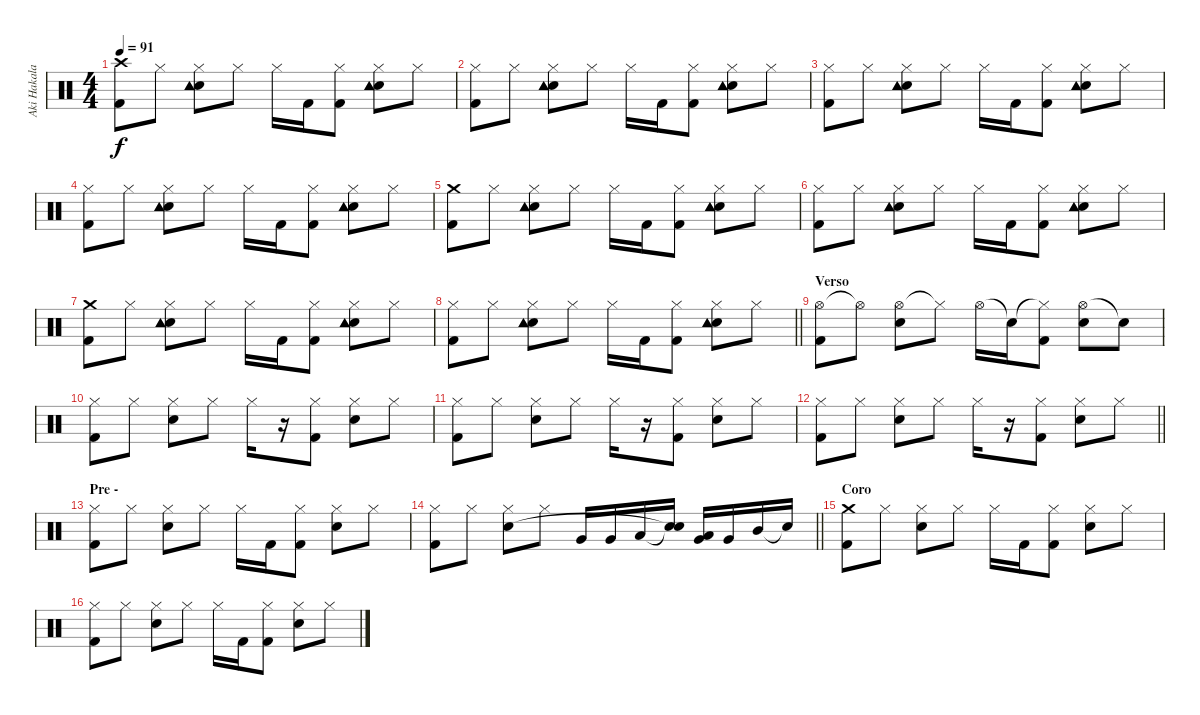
\track ("Aki Hakala" "Aki Hakala") {instrument percussion}
\staff {score}
\articulation defaults
\ts (4 4)
\tempo 91
\clef neutral
\ks c
("Crash high (hit)" "Kick (hit) 2").8{dy f} "Hi-Hat (closed)".8 ("Hi-Hat (closed)" "Electric Snare (hit)" "Tambourine (hit)" "Tambourine (hit)").8 "Hi-Hat (closed)".8 "Hi-Hat (closed)".16 "Kick (hit) 2".16 ("Hi-Hat (closed)" "Kick (hit) 2").8 ("Hi-Hat (closed)" "Electric Snare (hit)" "Tambourine (hit)" "Tambourine (hit)").8 "Hi-Hat (closed)".8 |
("Hi-Hat (closed)" "Kick (hit) 2").8 "Hi-Hat (closed)".8 ("Hi-Hat (closed)" "Electric Snare (hit)" "Tambourine (hit)" "Tambourine (hit)").8 "Hi-Hat (closed)".8 "Hi-Hat (closed)".16 "Kick (hit) 2".16 ("Hi-Hat (closed)" "Kick (hit) 2").8 ("Hi-Hat (closed)" "Electric Snare (hit)" "Tambourine (hit)" "Tambourine (hit)").8 "Hi-Hat (closed)".8 |
("Hi-Hat (closed)" "Kick (hit) 2").8 "Hi-Hat (closed)".8 ("Hi-Hat (closed)" "Electric Snare (hit)" "Tambourine (hit)" "Tambourine (hit)").8 "Hi-Hat (closed)".8 "Hi-Hat (closed)".16 "Kick (hit) 2".16 ("Hi-Hat (closed)" "Kick (hit) 2").8 ("Hi-Hat (closed)" "Electric Snare (hit)" "Tambourine (hit)" "Tambourine (hit)").8 "Hi-Hat (closed)".8 |
("Hi-Hat (closed)" "Kick (hit) 2").8 "Hi-Hat (closed)".8 ("Hi-Hat (closed)" "Electric Snare (hit)" "Tambourine (hit)" "Tambourine (hit)").8 "Hi-Hat (closed)".8 "Hi-Hat (closed)".16 "Kick (hit) 2".16 ("Hi-Hat (closed)" "Kick (hit) 2").8 ("Hi-Hat (closed)" "Electric Snare (hit)" "Tambourine (hit)" "Tambourine (hit)").8 "Hi-Hat (closed)".8 |
("Crash medium (hit)" "Kick (hit) 2").8 "Hi-Hat (closed)".8 ("Hi-Hat (closed)" "Electric Snare (hit)" "Tambourine (hit)" "Tambourine (hit)").8 "Hi-Hat (closed)".8 "Hi-Hat (closed)".16 "Kick (hit) 2".16 ("Hi-Hat (closed)" "Kick (hit) 2").8 ("Hi-Hat (closed)" "Electric Snare (hit)" "Tambourine (hit)" "Tambourine (hit)").8 "Hi-Hat (closed)".8 |
("Hi-Hat (closed)" "Kick (hit) 2").8 "Hi-Hat (closed)".8 ("Hi-Hat (closed)" "Electric Snare (hit)" "Tambourine (hit)" "Tambourine (hit)").8 "Hi-Hat (closed)".8 "Hi-Hat (closed)".16 "Kick (hit) 2".16 ("Hi-Hat (closed)" "Kick (hit) 2").8 ("Hi-Hat (closed)" "Electric Snare (hit)" "Tambourine (hit)" "Tambourine (hit)").8 "Hi-Hat (closed)".8 |
("Crash medium (hit)" "Kick (hit) 2").8 "Hi-Hat (closed)".8 ("Hi-Hat (closed)" "Electric Snare (hit)" "Tambourine (hit)" "Tambourine (hit)").8 "Hi-Hat (closed)".8 "Hi-Hat (closed)".16 "Kick (hit) 2".16 ("Hi-Hat (closed)" "Kick (hit) 2").8 ("Hi-Hat (closed)" "Electric Snare (hit)" "Tambourine (hit)" "Tambourine (hit)").8 "Hi-Hat (closed)".8 |
\barLineRight lightlight
("Hi-Hat (closed)" "Kick (hit) 2").8 "Hi-Hat (closed)".8 ("Hi-Hat (closed)" "Electric Snare (hit)" "Tambourine (hit)" "Tambourine (hit)").8 "Hi-Hat (closed)".8 "Hi-Hat (closed)".16 "Kick (hit) 2".16 ("Hi-Hat (closed)" "Kick (hit) 2").8 ("Hi-Hat (closed)" "Electric Snare (hit)" "Tambourine (hit)" "Tambourine (hit)").8 "Hi-Hat (closed)".8 |
\section ("" "Verso")
("Hi-Hat (open)" "Kick (hit) 2").8 "Hi-Hat (open)"{t}.8 ("Hi-Hat (open)" "Electric Snare (hit)").8 "Hi-Hat (closed)"{t}.8 "Hi-Hat (open)".16 "Snare (hit)"{t}.16 ("Hi-Hat (closed)"{t} "Kick (hit) 2").8 ("Hi-Hat (open)" "Electric Snare (hit)").8 "Snare (hit)"{t}.8 |
("Hi-Hat (closed)" "Kick (hit) 2").8 "Hi-Hat (closed)".8 ("Hi-Hat (closed)" "Electric Snare (hit)").8 "Hi-Hat (closed)".8 "Hi-Hat (closed)".16 r.16 ("Hi-Hat (closed)" "Kick (hit) 2").8 ("Hi-Hat (closed)" "Electric Snare (hit)").8 "Hi-Hat (closed)".8 |
("Hi-Hat (closed)" "Kick (hit) 2").8 "Hi-Hat (closed)".8 ("Hi-Hat (closed)" "Electric Snare (hit)").8 "Hi-Hat (closed)".8 "Hi-Hat (closed)".16 r.16 ("Hi-Hat (closed)" "Kick (hit) 2").8 ("Hi-Hat (closed)" "Electric Snare (hit)").8 "Hi-Hat (closed)".8 |
\barLineRight lightlight
("Hi-Hat (closed)" "Kick (hit) 2").8 "Hi-Hat (closed)".8 ("Hi-Hat (closed)" "Electric Snare (hit)").8 "Hi-Hat (closed)".8 "Hi-Hat (closed)".16 r.16 ("Hi-Hat (closed)" "Kick (hit) 2").8 ("Hi-Hat (closed)" "Electric Snare (hit)").8 "Hi-Hat (closed)".8 |
\section ("" "Pre -")
("Hi-Hat (closed)" "Kick (hit) 2").8 "Hi-Hat (closed)".8 ("Hi-Hat (closed)" "Electric Snare (hit)").8 "Hi-Hat (closed)".8 "Hi-Hat (closed)".16 "Kick (hit) 2".16 ("Hi-Hat (closed)" "Kick (hit) 2").8 ("Hi-Hat (closed)" "Electric Snare (hit)").8 "Hi-Hat (closed)".8 |
\barLineRight lightlight
("Hi-Hat (closed)" "Kick (hit) 2").8 "Hi-Hat (closed)".8 ("Hi-Hat (closed)" "Electric Snare (hit)").8 "Hi-Hat (closed)".8 "Very Low Tom (hit)".16 "Very Low Tom (hit)".16 "Low Tom (hit)".16 ("Snare (hit)"{t} "Snare (hit)"{t}).16 ("Low Tom (hit)" "Very Low Tom (hit)").16 "Very Low Tom (hit)".16 "Mid Tom (hit)".16 "Snare (hit)"{t}.16 |
\section ("" "Coro")
("Crash medium (hit)" "Kick (hit) 2").8 "Hi-Hat (closed)".8 ("Hi-Hat (closed)" "Electric Snare (hit)").8 "Hi-Hat (closed)".8 "Hi-Hat (closed)".16 "Kick (hit) 2".16 ("Hi-Hat (closed)" "Kick (hit) 2").8 ("Hi-Hat (closed)" "Electric Snare (hit)").8 "Hi-Hat (closed)".8 |
("Hi-Hat (closed)" "Kick (hit) 2").8 "Hi-Hat (closed)".8 ("Hi-Hat (closed)" "Electric Snare (hit)").8 "Hi-Hat (closed)".8 "Hi-Hat (closed)".16 "Kick (hit) 2".16 ("Hi-Hat (closed)" "Kick (hit) 2").8 ("Hi-Hat (closed)" "Electric Snare (hit)").8 "Hi-Hat (closed)".8
